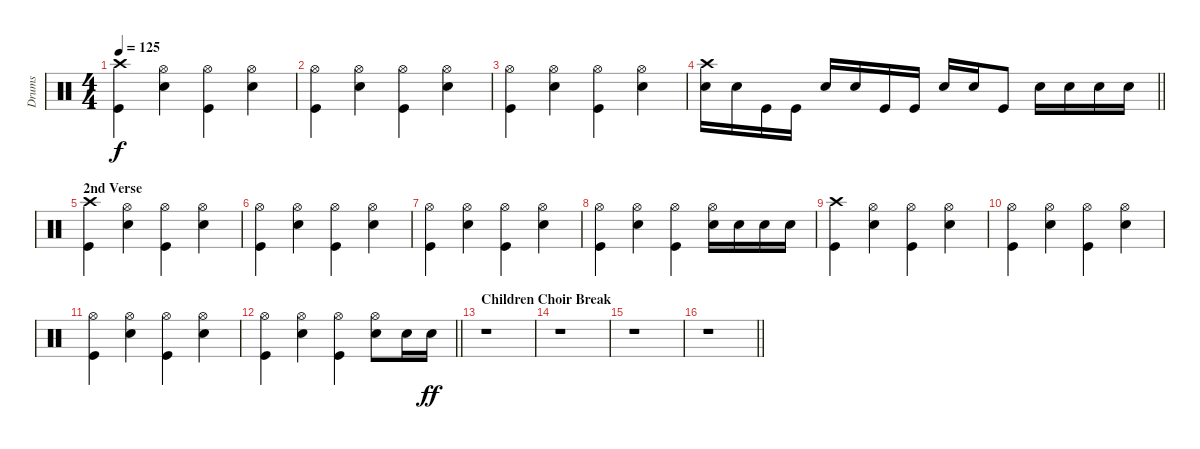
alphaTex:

\track ("Drums" "Drums") {instrument percussion}
\staff {score}
\articulation defaults
\ts (4 4)
\tempo 125
\clef neutral
\ks c
("Crash high (hit)" "Kick (hit)").4{dy f} ("Hi-Hat (open)" "Electric Snare (hit)").4 ("Hi-Hat (open)" "Kick (hit)").4 ("Hi-Hat (open)" "Electric Snare (hit)").4 |
("Hi-Hat (open)" "Kick (hit)").4 ("Hi-Hat (open)" "Electric Snare (hit)").4 ("Hi-Hat (open)" "Kick (hit)").4 ("Hi-Hat (open)" "Electric Snare (hit)").4 |
("Hi-Hat (open)" "Kick (hit)").4 ("Hi-Hat (open)" "Electric Snare (hit)").4 ("Hi-Hat (open)" "Kick (hit)").4 ("Hi-Hat (open)" "Electric Snare (hit)").4 |
\barLineRight lightlight
("Crash high (hit)" "Electric Snare (hit)").16 "Electric Snare (hit)".16 "Kick (hit)".16 "Kick (hit)".16 "Electric Snare (hit)".16 "Electric Snare (hit)".16 "Kick (hit)".16 "Kick (hit)".16 "Electric Snare (hit)".16 "Electric Snare (hit)".16 "Kick (hit)".8 "Electric Snare (hit)".16 "Electric Snare (hit)".16 "Electric Snare (hit)".16 "Electric Snare (hit)".16 |
\section ("" "2nd Verse")
("Crash high (hit)" "Kick (hit)").4 ("Hi-Hat (open)" "Electric Snare (hit)").4 ("Hi-Hat (open)" "Kick (hit)").4 ("Hi-Hat (open)" "Electric Snare (hit)").4 |
("Hi-Hat (open)" "Kick (hit)").4 ("Hi-Hat (open)" "Electric Snare (hit)").4 ("Hi-Hat (open)" "Kick (hit)").4 ("Hi-Hat (open)" "Electric Snare (hit)").4 |
("Hi-Hat (open)" "Kick (hit)").4 ("Hi-Hat (open)" "Electric Snare (hit)").4 ("Hi-Hat (open)" "Kick (hit)").4 ("Hi-Hat (open)" "Electric Snare (hit)").4 |
("Hi-Hat (open)" "Kick (hit)").4 ("Hi-Hat (open)" "Electric Snare (hit)").4 ("Hi-Hat (open)" "Kick (hit)").4 ("Hi-Hat (open)" "Electric Snare (hit)").16 "Electric Snare (hit)".16 "Electric Snare (hit)".16 "Electric Snare (hit)".16 |
("Crash high (hit)" "Kick (hit)").4 ("Hi-Hat (open)" "Electric Snare (hit)").4 ("Hi-Hat (open)" "Kick (hit)").4 ("Hi-Hat (open)" "Electric Snare (hit)").4 |
("Hi-Hat (open)" "Kick (hit)").4 ("Hi-Hat (open)" "Electric Snare (hit)").4 ("Hi-Hat (open)" "Kick (hit)").4 ("Hi-Hat (open)" "Electric Snare (hit)").4 |
("Hi-Hat (open)" "Kick (hit)").4 ("Hi-Hat (open)" "Electric Snare (hit)").4 ("Hi-Hat (open)" "Kick (hit)").4 ("Hi-Hat (open)" "Electric Snare (hit)").4 |
\barLineRight lightlight
("Hi-Hat (open)" "Kick (hit)").4 ("Hi-Hat (open)" "Electric Snare (hit)").4 ("Hi-Hat (open)" "Kick (hit)").4 ("Hi-Hat (open)" "Electric Snare (hit)").8 "Electric Snare (hit)".16 "Electric Snare (hit)".16{dy ff} |
\section ("" "Children Choir Break")
r.1 |
r.1 |
r.1 |
\barLineRight lightlight
r.1
